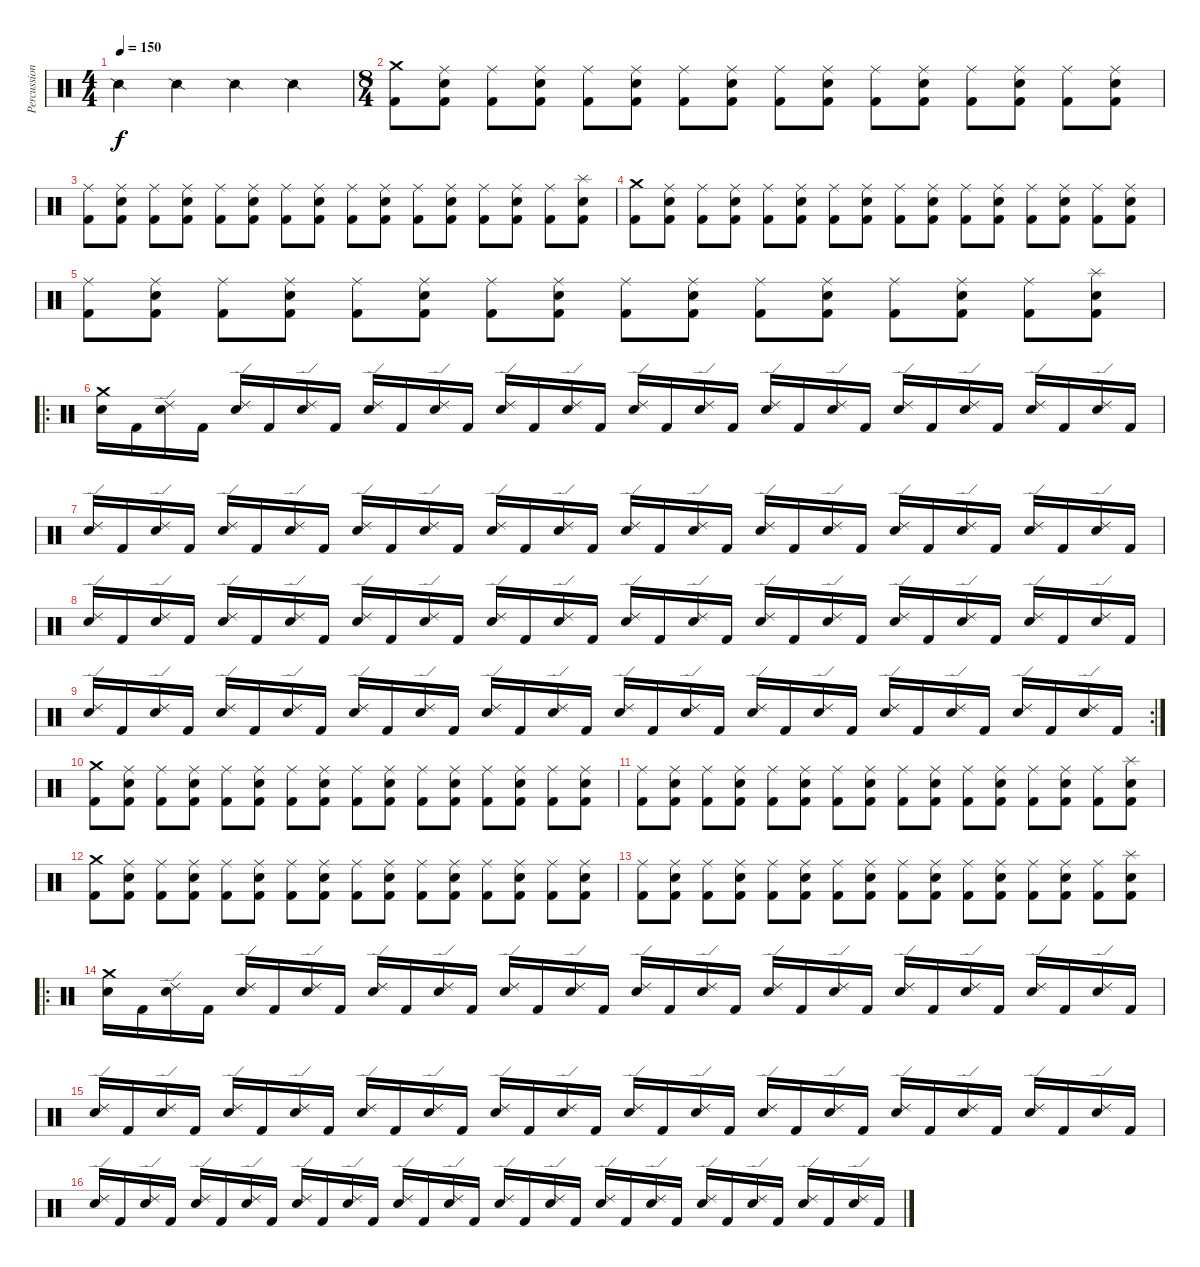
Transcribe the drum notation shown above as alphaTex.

\track ("Percussions" "Percussion") {instrument percussion}
\staff {score}
\articulation defaults
\ts (4 4)
\tempo 150
\clef neutral
\ks c "Snare (side stick) 2".4{dy f} "Snare (side stick) 2".4 "Snare (side stick) 2".4 "Snare (side stick) 2".4
|
\ts (8 4)
("Crash medium (hit)" "Kick (hit) 2").8 ("Ride (middle)" "Snare (hit) 2" "Kick (hit) 2").8 ("Ride (middle)" "Kick (hit) 2").8 ("Ride (middle)" "Snare (hit) 2" "Kick (hit) 2").8 ("Ride (middle)" "Kick (hit) 2").8 ("Ride (middle)" "Snare (hit) 2" "Kick (hit) 2").8 ("Ride (middle)" "Kick (hit) 2").8 ("Ride (middle)" "Snare (hit) 2" "Kick (hit) 2").8 ("Ride (middle)" "Kick (hit) 2").8 ("Ride (middle)" "Snare (hit) 2" "Kick (hit) 2").8 ("Ride (middle)" "Kick (hit) 2").8 ("Ride (middle)" "Snare (hit) 2" "Kick (hit) 2").8 ("Ride (middle)" "Kick (hit) 2").8 ("Ride (middle)" "Snare (hit) 2" "Kick (hit) 2").8 ("Ride (middle)" "Kick (hit) 2").8 ("Ride (middle)" "Snare (hit) 2" "Kick (hit) 2").8 |
("Ride (middle)" "Kick (hit) 2").8 ("Ride (middle)" "Snare (hit) 2" "Kick (hit) 2").8 ("Ride (middle)" "Kick (hit) 2").8 ("Ride (middle)" "Snare (hit) 2" "Kick (hit) 2").8 ("Ride (middle)" "Kick (hit) 2").8 ("Ride (middle)" "Snare (hit) 2" "Kick (hit) 2").8 ("Ride (middle)" "Kick (hit) 2").8 ("Ride (middle)" "Snare (hit) 2" "Kick (hit) 2").8 ("Ride (middle)" "Kick (hit) 2").8 ("Ride (middle)" "Snare (hit) 2" "Kick (hit) 2").8 ("Ride (middle)" "Kick (hit) 2").8 ("Ride (middle)" "Snare (hit) 2" "Kick (hit) 2").8 ("Ride (middle)" "Kick (hit) 2").8 ("Ride (middle)" "Snare (hit) 2" "Kick (hit) 2").8 ("Ride (middle)" "Kick (hit) 2").8 ("Splash (hit)" "Snare (hit) 2" "Kick (hit) 2").8 |
("Crash medium (hit)" "Kick (hit) 2").8 ("Ride (middle)" "Snare (hit) 2" "Kick (hit) 2").8 ("Ride (middle)" "Kick (hit) 2").8 ("Ride (middle)" "Snare (hit) 2" "Kick (hit) 2").8 ("Ride (middle)" "Kick (hit) 2").8 ("Ride (middle)" "Snare (hit) 2" "Kick (hit) 2").8 ("Ride (middle)" "Kick (hit) 2").8 ("Ride (middle)" "Snare (hit) 2" "Kick (hit) 2").8 ("Ride (middle)" "Kick (hit) 2").8 ("Ride (middle)" "Snare (hit) 2" "Kick (hit) 2").8 ("Ride (middle)" "Kick (hit) 2").8 ("Ride (middle)" "Snare (hit) 2" "Kick (hit) 2").8 ("Ride (middle)" "Kick (hit) 2").8 ("Ride (middle)" "Snare (hit) 2" "Kick (hit) 2").8 ("Ride (middle)" "Kick (hit) 2").8 ("Ride (middle)" "Snare (hit) 2" "Kick (hit) 2").8 |
("Ride (middle)" "Kick (hit) 2").8 ("Ride (middle)" "Snare (hit) 2" "Kick (hit) 2").8 ("Ride (middle)" "Kick (hit) 2").8 ("Ride (middle)" "Snare (hit) 2" "Kick (hit) 2").8 ("Ride (middle)" "Kick (hit) 2").8 ("Ride (middle)" "Snare (hit) 2" "Kick (hit) 2").8 ("Ride (middle)" "Kick (hit) 2").8 ("Ride (middle)" "Snare (hit) 2" "Kick (hit) 2").8 ("Ride (middle)" "Kick (hit) 2").8 ("Ride (middle)" "Snare (hit) 2" "Kick (hit) 2").8 ("Ride (middle)" "Kick (hit) 2").8 ("Ride (middle)" "Snare (hit) 2" "Kick (hit) 2").8 ("Ride (middle)" "Kick (hit) 2").8 ("Ride (middle)" "Snare (hit) 2" "Kick (hit) 2").8 ("Ride (middle)" "Kick (hit) 2").8 ("Splash (hit)" "Snare (hit) 2" "Kick (hit) 2").8 |
\ro
("Crash medium (hit)" "Snare (hit) 2").16 "Kick (hit) 2".16 ("Ride (edge) 2" "Snare (hit) 2").16 "Kick (hit) 2".16 ("Ride (edge) 2" "Snare (hit) 2").16 "Kick (hit) 2".16 ("Ride (edge) 2" "Snare (hit) 2").16 "Kick (hit) 2".16 ("Ride (edge) 2" "Snare (hit) 2").16 "Kick (hit) 2".16 ("Ride (edge) 2" "Snare (hit) 2").16 "Kick (hit) 2".16 ("Ride (edge) 2" "Snare (hit) 2").16 "Kick (hit) 2".16 ("Ride (edge) 2" "Snare (hit) 2").16 "Kick (hit) 2".16 ("Ride (edge) 2" "Snare (hit) 2").16 "Kick (hit) 2".16 ("Ride (edge) 2" "Snare (hit) 2").16 "Kick (hit) 2".16 ("Ride (edge) 2" "Snare (hit) 2").16 "Kick (hit) 2".16 ("Ride (edge) 2" "Snare (hit) 2").16 "Kick (hit) 2".16 ("Ride (edge) 2" "Snare (hit) 2").16 "Kick (hit) 2".16 ("Ride (edge) 2" "Snare (hit) 2").16 "Kick (hit) 2".16 ("Ride (edge) 2" "Snare (hit) 2").16 "Kick (hit) 2".16 ("Ride (edge) 2" "Snare (hit) 2").16 "Kick (hit) 2".16 |
("Ride (edge) 2" "Snare (hit) 2").16 "Kick (hit) 2".16 ("Ride (edge) 2" "Snare (hit) 2").16 "Kick (hit) 2".16 ("Ride (edge) 2" "Snare (hit) 2").16 "Kick (hit) 2".16 ("Ride (edge) 2" "Snare (hit) 2").16 "Kick (hit) 2".16 ("Ride (edge) 2" "Snare (hit) 2").16 "Kick (hit) 2".16 ("Ride (edge) 2" "Snare (hit) 2").16 "Kick (hit) 2".16 ("Ride (edge) 2" "Snare (hit) 2").16 "Kick (hit) 2".16 ("Ride (edge) 2" "Snare (hit) 2").16 "Kick (hit) 2".16 ("Ride (edge) 2" "Snare (hit) 2").16 "Kick (hit) 2".16 ("Ride (edge) 2" "Snare (hit) 2").16 "Kick (hit) 2".16 ("Ride (edge) 2" "Snare (hit) 2").16 "Kick (hit) 2".16 ("Ride (edge) 2" "Snare (hit) 2").16 "Kick (hit) 2".16 ("Ride (edge) 2" "Snare (hit) 2").16 "Kick (hit) 2".16 ("Ride (edge) 2" "Snare (hit) 2").16 "Kick (hit) 2".16 ("Ride (edge) 2" "Snare (hit) 2").16 "Kick (hit) 2".16 ("Ride (edge) 2" "Snare (hit) 2").16 "Kick (hit) 2".16 |
("Ride (edge) 2" "Snare (hit) 2").16 "Kick (hit) 2".16 ("Ride (edge) 2" "Snare (hit) 2").16 "Kick (hit) 2".16 ("Ride (edge) 2" "Snare (hit) 2").16 "Kick (hit) 2".16 ("Ride (edge) 2" "Snare (hit) 2").16 "Kick (hit) 2".16 ("Ride (edge) 2" "Snare (hit) 2").16 "Kick (hit) 2".16 ("Ride (edge) 2" "Snare (hit) 2").16 "Kick (hit) 2".16 ("Ride (edge) 2" "Snare (hit) 2").16 "Kick (hit) 2".16 ("Ride (edge) 2" "Snare (hit) 2").16 "Kick (hit) 2".16 ("Ride (edge) 2" "Snare (hit) 2").16 "Kick (hit) 2".16 ("Ride (edge) 2" "Snare (hit) 2").16 "Kick (hit) 2".16 ("Ride (edge) 2" "Snare (hit) 2").16 "Kick (hit) 2".16 ("Ride (edge) 2" "Snare (hit) 2").16 "Kick (hit) 2".16 ("Ride (edge) 2" "Snare (hit) 2").16 "Kick (hit) 2".16 ("Ride (edge) 2" "Snare (hit) 2").16 "Kick (hit) 2".16 ("Ride (edge) 2" "Snare (hit) 2").16 "Kick (hit) 2".16 ("Ride (edge) 2" "Snare (hit) 2").16 "Kick (hit) 2".16 |
\rc 2
("Ride (edge) 2" "Snare (hit) 2").16 "Kick (hit) 2".16 ("Ride (edge) 2" "Snare (hit) 2").16 "Kick (hit) 2".16 ("Ride (edge) 2" "Snare (hit) 2").16 "Kick (hit) 2".16 ("Ride (edge) 2" "Snare (hit) 2").16 "Kick (hit) 2".16 ("Ride (edge) 2" "Snare (hit) 2").16 "Kick (hit) 2".16 ("Ride (edge) 2" "Snare (hit) 2").16 "Kick (hit) 2".16 ("Ride (edge) 2" "Snare (hit) 2").16 "Kick (hit) 2".16 ("Ride (edge) 2" "Snare (hit) 2").16 "Kick (hit) 2".16 ("Ride (edge) 2" "Snare (hit) 2").16 "Kick (hit) 2".16 ("Ride (edge) 2" "Snare (hit) 2").16 "Kick (hit) 2".16 ("Ride (edge) 2" "Snare (hit) 2").16 "Kick (hit) 2".16 ("Ride (edge) 2" "Snare (hit) 2").16 "Kick (hit) 2".16 ("Ride (edge) 2" "Snare (hit) 2").16 "Kick (hit) 2".16 ("Ride (edge) 2" "Snare (hit) 2").16 "Kick (hit) 2".16 ("Ride (edge) 2" "Snare (hit) 2").16 "Kick (hit) 2".16 ("Ride (edge) 2" "Snare (hit) 2").16 "Kick (hit) 2".16 |
("Crash medium (hit)" "Kick (hit) 2").8 ("Ride (middle)" "Snare (hit) 2" "Kick (hit) 2").8 ("Ride (middle)" "Kick (hit) 2").8 ("Ride (middle)" "Snare (hit) 2" "Kick (hit) 2").8 ("Ride (middle)" "Kick (hit) 2").8 ("Ride (middle)" "Snare (hit) 2" "Kick (hit) 2").8 ("Ride (middle)" "Kick (hit) 2").8 ("Ride (middle)" "Snare (hit) 2" "Kick (hit) 2").8 ("Ride (middle)" "Kick (hit) 2").8 ("Ride (middle)" "Snare (hit) 2" "Kick (hit) 2").8 ("Ride (middle)" "Kick (hit) 2").8 ("Ride (middle)" "Snare (hit) 2" "Kick (hit) 2").8 ("Ride (middle)" "Kick (hit) 2").8 ("Ride (middle)" "Snare (hit) 2" "Kick (hit) 2").8 ("Ride (middle)" "Kick (hit) 2").8 ("Ride (middle)" "Snare (hit) 2" "Kick (hit) 2").8 |
("Ride (middle)" "Kick (hit) 2").8 ("Ride (middle)" "Snare (hit) 2" "Kick (hit) 2").8 ("Ride (middle)" "Kick (hit) 2").8 ("Ride (middle)" "Snare (hit) 2" "Kick (hit) 2").8 ("Ride (middle)" "Kick (hit) 2").8 ("Ride (middle)" "Snare (hit) 2" "Kick (hit) 2").8 ("Ride (middle)" "Kick (hit) 2").8 ("Ride (middle)" "Snare (hit) 2" "Kick (hit) 2").8 ("Ride (middle)" "Kick (hit) 2").8 ("Ride (middle)" "Snare (hit) 2" "Kick (hit) 2").8 ("Ride (middle)" "Kick (hit) 2").8 ("Ride (middle)" "Snare (hit) 2" "Kick (hit) 2").8 ("Ride (middle)" "Kick (hit) 2").8 ("Ride (middle)" "Snare (hit) 2" "Kick (hit) 2").8 ("Ride (middle)" "Kick (hit) 2").8 ("Splash (hit)" "Snare (hit) 2" "Kick (hit) 2").8 |
("Crash medium (hit)" "Kick (hit) 2").8 ("Ride (middle)" "Snare (hit) 2" "Kick (hit) 2").8 ("Ride (middle)" "Kick (hit) 2").8 ("Ride (middle)" "Snare (hit) 2" "Kick (hit) 2").8 ("Ride (middle)" "Kick (hit) 2").8 ("Ride (middle)" "Snare (hit) 2" "Kick (hit) 2").8 ("Ride (middle)" "Kick (hit) 2").8 ("Ride (middle)" "Snare (hit) 2" "Kick (hit) 2").8 ("Ride (middle)" "Kick (hit) 2").8 ("Ride (middle)" "Snare (hit) 2" "Kick (hit) 2").8 ("Ride (middle)" "Kick (hit) 2").8 ("Ride (middle)" "Snare (hit) 2" "Kick (hit) 2").8 ("Ride (middle)" "Kick (hit) 2").8 ("Ride (middle)" "Snare (hit) 2" "Kick (hit) 2").8 ("Ride (middle)" "Kick (hit) 2").8 ("Ride (middle)" "Snare (hit) 2" "Kick (hit) 2").8 |
("Ride (middle)" "Kick (hit) 2").8 ("Ride (middle)" "Snare (hit) 2" "Kick (hit) 2").8 ("Ride (middle)" "Kick (hit) 2").8 ("Ride (middle)" "Snare (hit) 2" "Kick (hit) 2").8 ("Ride (middle)" "Kick (hit) 2").8 ("Ride (middle)" "Snare (hit) 2" "Kick (hit) 2").8 ("Ride (middle)" "Kick (hit) 2").8 ("Ride (middle)" "Snare (hit) 2" "Kick (hit) 2").8 ("Ride (middle)" "Kick (hit) 2").8 ("Ride (middle)" "Snare (hit) 2" "Kick (hit) 2").8 ("Ride (middle)" "Kick (hit) 2").8 ("Ride (middle)" "Snare (hit) 2" "Kick (hit) 2").8 ("Ride (middle)" "Kick (hit) 2").8 ("Ride (middle)" "Snare (hit) 2" "Kick (hit) 2").8 ("Ride (middle)" "Kick (hit) 2").8 ("Splash (hit)" "Snare (hit) 2" "Kick (hit) 2").8 |
\ro
("Crash medium (hit)" "Snare (hit) 2").16 "Kick (hit) 2".16 ("Ride (edge) 2" "Snare (hit) 2").16 "Kick (hit) 2".16 ("Ride (edge) 2" "Snare (hit) 2").16 "Kick (hit) 2".16 ("Ride (edge) 2" "Snare (hit) 2").16 "Kick (hit) 2".16 ("Ride (edge) 2" "Snare (hit) 2").16 "Kick (hit) 2".16 ("Ride (edge) 2" "Snare (hit) 2").16 "Kick (hit) 2".16 ("Ride (edge) 2" "Snare (hit) 2").16 "Kick (hit) 2".16 ("Ride (edge) 2" "Snare (hit) 2").16 "Kick (hit) 2".16 ("Ride (edge) 2" "Snare (hit) 2").16 "Kick (hit) 2".16 ("Ride (edge) 2" "Snare (hit) 2").16 "Kick (hit) 2".16 ("Ride (edge) 2" "Snare (hit) 2").16 "Kick (hit) 2".16 ("Ride (edge) 2" "Snare (hit) 2").16 "Kick (hit) 2".16 ("Ride (edge) 2" "Snare (hit) 2").16 "Kick (hit) 2".16 ("Ride (edge) 2" "Snare (hit) 2").16 "Kick (hit) 2".16 ("Ride (edge) 2" "Snare (hit) 2").16 "Kick (hit) 2".16 ("Ride (edge) 2" "Snare (hit) 2").16 "Kick (hit) 2".16 |
("Ride (edge) 2" "Snare (hit) 2").16 "Kick (hit) 2".16 ("Ride (edge) 2" "Snare (hit) 2").16 "Kick (hit) 2".16 ("Ride (edge) 2" "Snare (hit) 2").16 "Kick (hit) 2".16 ("Ride (edge) 2" "Snare (hit) 2").16 "Kick (hit) 2".16 ("Ride (edge) 2" "Snare (hit) 2").16 "Kick (hit) 2".16 ("Ride (edge) 2" "Snare (hit) 2").16 "Kick (hit) 2".16 ("Ride (edge) 2" "Snare (hit) 2").16 "Kick (hit) 2".16 ("Ride (edge) 2" "Snare (hit) 2").16 "Kick (hit) 2".16 ("Ride (edge) 2" "Snare (hit) 2").16 "Kick (hit) 2".16 ("Ride (edge) 2" "Snare (hit) 2").16 "Kick (hit) 2".16 ("Ride (edge) 2" "Snare (hit) 2").16 "Kick (hit) 2".16 ("Ride (edge) 2" "Snare (hit) 2").16 "Kick (hit) 2".16 ("Ride (edge) 2" "Snare (hit) 2").16 "Kick (hit) 2".16 ("Ride (edge) 2" "Snare (hit) 2").16 "Kick (hit) 2".16 ("Ride (edge) 2" "Snare (hit) 2").16 "Kick (hit) 2".16 ("Ride (edge) 2" "Snare (hit) 2").16 "Kick (hit) 2".16 |
("Ride (edge) 2" "Snare (hit) 2").16 "Kick (hit) 2".16 ("Ride (edge) 2" "Snare (hit) 2").16 "Kick (hit) 2".16 ("Ride (edge) 2" "Snare (hit) 2").16 "Kick (hit) 2".16 ("Ride (edge) 2" "Snare (hit) 2").16 "Kick (hit) 2".16 ("Ride (edge) 2" "Snare (hit) 2").16 "Kick (hit) 2".16 ("Ride (edge) 2" "Snare (hit) 2").16 "Kick (hit) 2".16 ("Ride (edge) 2" "Snare (hit) 2").16 "Kick (hit) 2".16 ("Ride (edge) 2" "Snare (hit) 2").16 "Kick (hit) 2".16 ("Ride (edge) 2" "Snare (hit) 2").16 "Kick (hit) 2".16 ("Ride (edge) 2" "Snare (hit) 2").16 "Kick (hit) 2".16 ("Ride (edge) 2" "Snare (hit) 2").16 "Kick (hit) 2".16 ("Ride (edge) 2" "Snare (hit) 2").16 "Kick (hit) 2".16 ("Ride (edge) 2" "Snare (hit) 2").16 "Kick (hit) 2".16 ("Ride (edge) 2" "Snare (hit) 2").16 "Kick (hit) 2".16 ("Ride (edge) 2" "Snare (hit) 2").16 "Kick (hit) 2".16 ("Ride (edge) 2" "Snare (hit) 2").16 "Kick (hit) 2".16
